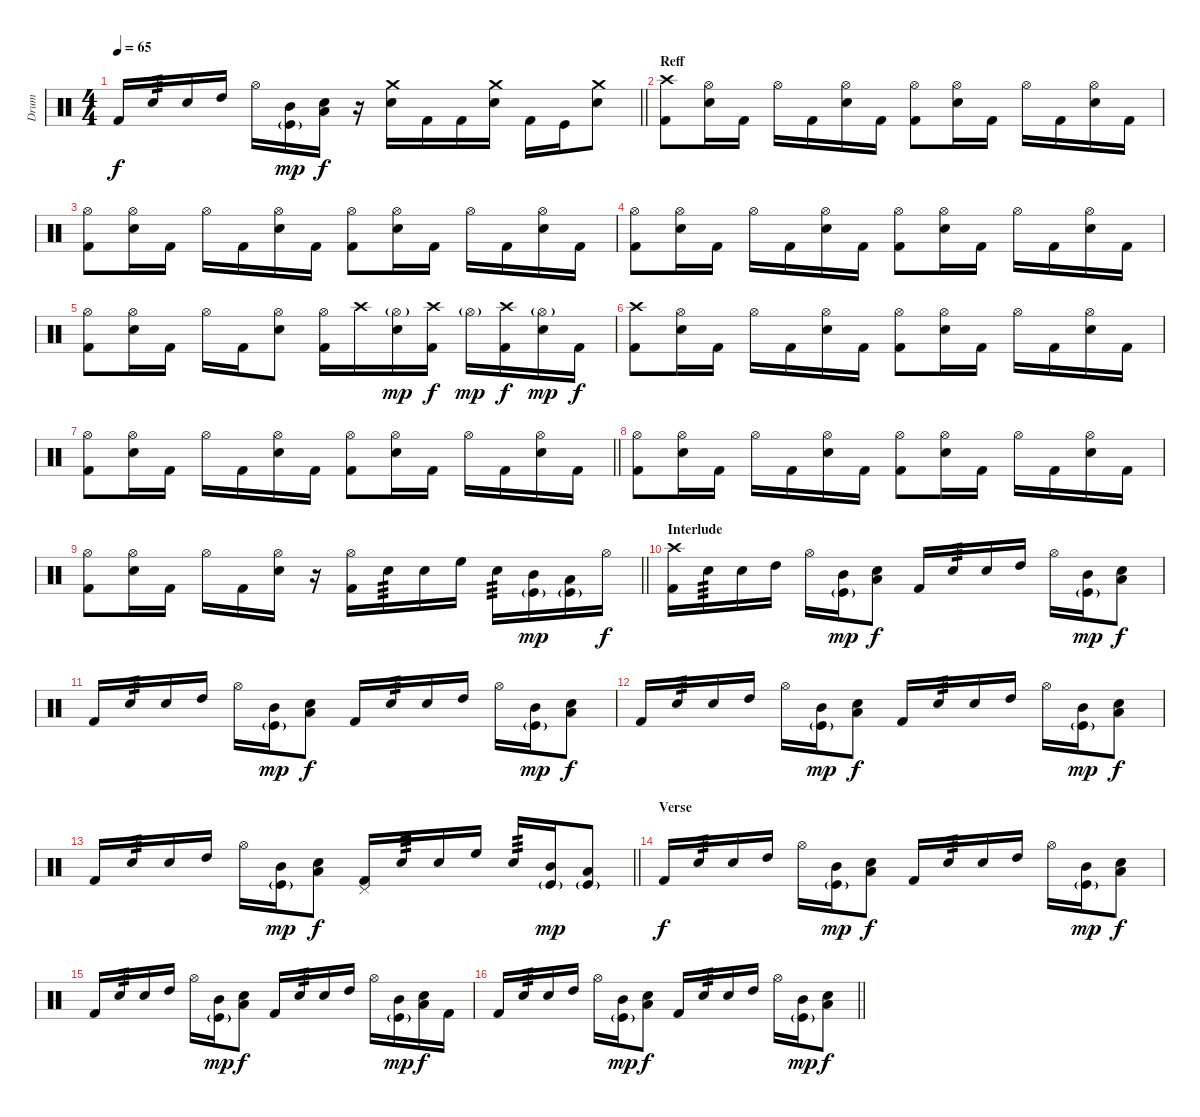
\track ("Drum" "Drum") {instrument percussion}
\staff {score}
\articulation defaults
\ts (4 4)
\tempo 65
\clef neutral
\barLineRight lightlight
\ks c "Kick (hit) 2".16{dy f} "Electric Snare (hit)".16{tp 3} "Electric Snare (hit)".16 "High Tom (hit)".16 "Hi-Hat (open)".16
("Mid Tom (hit)" "Kick (hit)"{g}).16{dy mp} ("Low Floor Tom (hit)" "Electric Snare (hit)").16{dy f} r.16 ("Crash medium (hit)" "Electric Snare (hit)").16 "Kick (hit) 2".16 "Kick (hit) 2".16 ("Crash medium (hit)" "Electric Snare (hit)").16 "Kick (hit) 2".16 "Kick (hit)".16 ("Crash medium (hit)" "Electric Snare (hit)").8 |
\section ("" "Reff")
("Crash high (hit)" "Kick (hit) 2").8 ("Hi-Hat (open)" "Electric Snare (hit)").16 "Kick (hit) 2".16 "Hi-Hat (open)".16 "Kick (hit) 2".16 ("Hi-Hat (open)" "Electric Snare (hit)").16 "Kick (hit) 2".16 ("Hi-Hat (open)" "Kick (hit) 2").8 ("Hi-Hat (open)" "Electric Snare (hit)").16 "Kick (hit) 2".16 "Hi-Hat (open)".16 "Kick (hit) 2".16 ("Hi-Hat (open)" "Electric Snare (hit)").16 "Kick (hit) 2".16 |
("Hi-Hat (open)" "Kick (hit) 2").8 ("Hi-Hat (open)" "Electric Snare (hit)").16 "Kick (hit) 2".16 "Hi-Hat (open)".16 "Kick (hit) 2".16 ("Hi-Hat (open)" "Electric Snare (hit)").16 "Kick (hit) 2".16 ("Hi-Hat (open)" "Kick (hit) 2").8 ("Hi-Hat (open)" "Electric Snare (hit)").16 "Kick (hit) 2".16 "Hi-Hat (open)".16 "Kick (hit) 2".16 ("Hi-Hat (open)" "Electric Snare (hit)").16 "Kick (hit) 2".16 |
("Hi-Hat (open)" "Kick (hit) 2").8 ("Hi-Hat (open)" "Electric Snare (hit)").16 "Kick (hit) 2".16 "Hi-Hat (open)".16 "Kick (hit) 2".16 ("Hi-Hat (open)" "Electric Snare (hit)").16 "Kick (hit) 2".16 ("Hi-Hat (open)" "Kick (hit) 2").8 ("Hi-Hat (open)" "Electric Snare (hit)").16 "Kick (hit) 2".16 "Hi-Hat (open)".16 "Kick (hit) 2".16 ("Hi-Hat (open)" "Electric Snare (hit)").16 "Kick (hit) 2".16 |
("Hi-Hat (open)" "Kick (hit) 2").8 ("Hi-Hat (open)" "Electric Snare (hit)").16 "Kick (hit) 2".16 "Hi-Hat (open)".16 "Kick (hit) 2".16 ("Hi-Hat (open)" "Electric Snare (hit)").8 ("Hi-Hat (open)" "Kick (hit) 2").16 "Crash high (hit)".16 ("Hi-Hat (open)"{g} "Electric Snare (hit)").16{dy mp} ("Crash high (hit)" "Kick (hit) 2").16{dy f} "Hi-Hat (open)"{g}.16{dy mp} ("Crash high (hit)" "Kick (hit) 2").16{dy f} ("Hi-Hat (open)"{g} "Electric Snare (hit)").16{dy mp} "Kick (hit) 2".16{dy f} |
("Crash high (hit)" "Kick (hit) 2").8 ("Hi-Hat (open)" "Electric Snare (hit)").16 "Kick (hit) 2".16 "Hi-Hat (open)".16 "Kick (hit) 2".16 ("Hi-Hat (open)" "Electric Snare (hit)").16 "Kick (hit) 2".16 ("Hi-Hat (open)" "Kick (hit) 2").8 ("Hi-Hat (open)" "Electric Snare (hit)").16 "Kick (hit) 2".16 "Hi-Hat (open)".16 "Kick (hit) 2".16 ("Hi-Hat (open)" "Electric Snare (hit)").16 "Kick (hit) 2".16 |
\barLineRight lightlight
("Hi-Hat (open)" "Kick (hit) 2").8 ("Hi-Hat (open)" "Electric Snare (hit)").16 "Kick (hit) 2".16 "Hi-Hat (open)".16 "Kick (hit) 2".16 ("Hi-Hat (open)" "Electric Snare (hit)").16 "Kick (hit) 2".16 ("Hi-Hat (open)" "Kick (hit) 2").8 ("Hi-Hat (open)" "Electric Snare (hit)").16 "Kick (hit) 2".16 "Hi-Hat (open)".16 "Kick (hit) 2".16 ("Hi-Hat (open)" "Electric Snare (hit)").16 "Kick (hit) 2".16 |
("Hi-Hat (open)" "Kick (hit) 2").8 ("Hi-Hat (open)" "Electric Snare (hit)").16 "Kick (hit) 2".16 "Hi-Hat (open)".16 "Kick (hit) 2".16 ("Hi-Hat (open)" "Electric Snare (hit)").16 "Kick (hit) 2".16 ("Hi-Hat (open)" "Kick (hit) 2").8 ("Hi-Hat (open)" "Electric Snare (hit)").16 "Kick (hit) 2".16 "Hi-Hat (open)".16 "Kick (hit) 2".16 ("Hi-Hat (open)" "Electric Snare (hit)").16 "Kick (hit) 2".16 |
\barLineRight lightlight
("Hi-Hat (open)" "Kick (hit) 2").8 ("Hi-Hat (open)" "Electric Snare (hit)").16 "Kick (hit) 2".16 "Hi-Hat (open)".16 "Kick (hit) 2".16 ("Hi-Hat (open)" "Electric Snare (hit)").16 r.16 ("Hi-Hat (open)" "Kick (hit) 2").16 "Electric Snare (hit)".16{tp 3} "Electric Snare (hit)".16 "High Floor Tom (hit)".16 "Electric Snare (hit)".16{tp 3} ("Mid Tom (hit)" "Kick (hit)"{g}).16{dy mp} ("Low Tom (hit)" "Kick (hit)"{g}).16 "Hi-Hat (open)".16{dy f} |
\section ("" "Interlude")
("Crash high (hit)" "Kick (hit) 2").16 "Electric Snare (hit)".16{tp 3} "Electric Snare (hit)".16 "High Tom (hit)".16 "Hi-Hat (open)".16 ("Mid Tom (hit)" "Kick (hit)"{g}).16{dy mp} ("Low Floor Tom (hit)" "Electric Snare (hit)").8{dy f} "Kick (hit) 2".16 "Electric Snare (hit)".16{tp 3} "Electric Snare (hit)".16 "High Tom (hit)".16 "Hi-Hat (open)".16 ("Mid Tom (hit)" "Kick (hit)"{g}).16{dy mp} ("Low Floor Tom (hit)" "Electric Snare (hit)").8{dy f} |
"Kick (hit) 2".16 "Electric Snare (hit)".16{tp 3} "Electric Snare (hit)".16 "High Tom (hit)".16 "Hi-Hat (open)".16 ("Mid Tom (hit)" "Kick (hit)"{g}).16{dy mp} ("Low Floor Tom (hit)" "Electric Snare (hit)").8{dy f} "Kick (hit) 2".16 "Electric Snare (hit)".16{tp 3} "Electric Snare (hit)".16 "High Tom (hit)".16 "Hi-Hat (open)".16 ("Mid Tom (hit)" "Kick (hit)"{g}).16{dy mp} ("Low Floor Tom (hit)" "Electric Snare (hit)").8{dy f} |
"Kick (hit) 2".16 "Electric Snare (hit)".16{tp 3} "Electric Snare (hit)".16 "High Tom (hit)".16 "Hi-Hat (open)".16 ("Mid Tom (hit)" "Kick (hit)"{g}).16{dy mp} ("Low Floor Tom (hit)" "Electric Snare (hit)").8{dy f} "Kick (hit) 2".16 "Electric Snare (hit)".16{tp 3} "Electric Snare (hit)".16 "High Tom (hit)".16 "Hi-Hat (open)".16 ("Mid Tom (hit)" "Kick (hit)"{g}).16{dy mp} ("Low Floor Tom (hit)" "Electric Snare (hit)").8{dy f} |
\barLineRight lightlight "Kick (hit) 2".16 "Electric Snare (hit)".16{tp 3} "Electric Snare (hit)".16 "High Tom (hit)".16 "Hi-Hat (open)".16
("Mid Tom (hit)" "Kick (hit)"{g}).16{dy mp} ("Low Floor Tom (hit)" "Electric Snare (hit)").8{dy f} ("Pedal Hi-Hat (hit)" "Kick (hit) 2").16 "Electric Snare (hit)".16{tp 3} "Electric Snare (hit)".16 "High Floor Tom (hit)".16 "Electric Snare (hit)".16{tp 3} ("Mid Tom (hit)" "Kick (hit)"{g}).16{dy mp} ("Low Tom (hit)" "Kick (hit)"{g}).8 |
\section ("" "Verse")
"Kick (hit) 2".16{dy f} "Electric Snare (hit)".16{tp 3} "Electric Snare (hit)".16 "High Tom (hit)".16 "Hi-Hat (open)".16 ("Mid Tom (hit)" "Kick (hit)"{g}).16{dy mp} ("Low Floor Tom (hit)" "Electric Snare (hit)").8{dy f} "Kick (hit) 2".16 "Electric Snare (hit)".16{tp 3} "Electric Snare (hit)".16 "High Tom (hit)".16 "Hi-Hat (open)".16 ("Mid Tom (hit)" "Kick (hit)"{g}).16{dy mp} ("Low Floor Tom (hit)" "Electric Snare (hit)").8{dy f} |
"Kick (hit) 2".16 "Electric Snare (hit)".16{tp 3} "Electric Snare (hit)".16 "High Tom (hit)".16 "Hi-Hat (open)".16 ("Mid Tom (hit)" "Kick (hit)"{g}).16{dy mp} ("Low Floor Tom (hit)" "Electric Snare (hit)").8{dy f} "Kick (hit) 2".16 "Electric Snare (hit)".16{tp 3} "Electric Snare (hit)".16 "High Tom (hit)".16 "Hi-Hat (open)".16 ("Mid Tom (hit)" "Kick (hit)"{g}).16{dy mp} ("Low Floor Tom (hit)" "Electric Snare (hit)").16{dy f} "Kick (hit) 2".16 |
\barLineRight lightlight "Kick (hit) 2".16 "Electric Snare (hit)".16{tp 3} "Electric Snare (hit)".16 "High Tom (hit)".16 "Hi-Hat (open)".16
("Mid Tom (hit)" "Kick (hit)"{g}).16{dy mp} ("Low Floor Tom (hit)" "Electric Snare (hit)").8{dy f} "Kick (hit) 2".16 "Electric Snare (hit)".16{tp 3} "Electric Snare (hit)".16 "High Tom (hit)".16 "Hi-Hat (open)".16 ("Mid Tom (hit)" "Kick (hit)"{g}).16{dy mp} ("Low Floor Tom (hit)" "Electric Snare (hit)").8{dy f}
